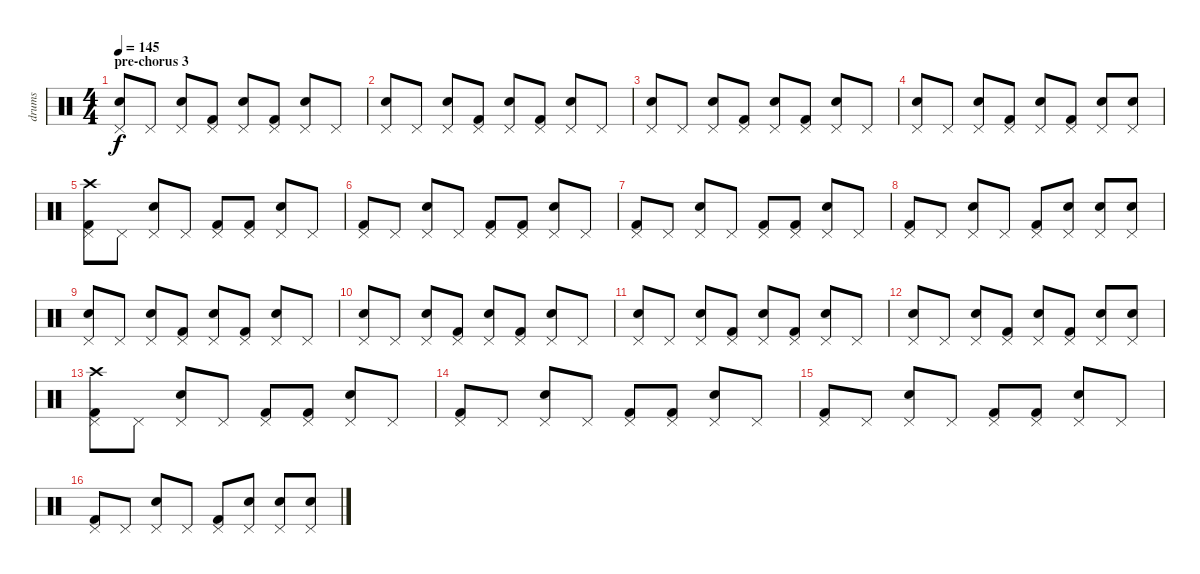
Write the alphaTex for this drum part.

\track ("drums" "drums") {instrument percussion}
\staff {score}
\articulation defaults
\ts (4 4)
\section ("" "pre-chorus 3")
\tempo 145
\clef neutral
\ks c
("Snare (hit) 2" "Pedal Hi-Hat (hit)").8{dy f} "Pedal Hi-Hat (hit)".8 ("Snare (hit) 2" "Pedal Hi-Hat (hit)").8 ("Kick (hit) 2" "Pedal Hi-Hat (hit)").8 ("Snare (hit) 2" "Pedal Hi-Hat (hit)").8 ("Kick (hit) 2" "Pedal Hi-Hat (hit)").8 ("Snare (hit) 2" "Pedal Hi-Hat (hit)").8 "Pedal Hi-Hat (hit)".8 |
("Snare (hit) 2" "Pedal Hi-Hat (hit)").8 "Pedal Hi-Hat (hit)".8 ("Snare (hit) 2" "Pedal Hi-Hat (hit)").8 ("Kick (hit) 2" "Pedal Hi-Hat (hit)").8 ("Snare (hit) 2" "Pedal Hi-Hat (hit)").8 ("Kick (hit) 2" "Pedal Hi-Hat (hit)").8 ("Snare (hit) 2" "Pedal Hi-Hat (hit)").8 "Pedal Hi-Hat (hit)".8 |
("Snare (hit) 2" "Pedal Hi-Hat (hit)").8 "Pedal Hi-Hat (hit)".8 ("Snare (hit) 2" "Pedal Hi-Hat (hit)").8 ("Kick (hit) 2" "Pedal Hi-Hat (hit)").8 ("Snare (hit) 2" "Pedal Hi-Hat (hit)").8 ("Kick (hit) 2" "Pedal Hi-Hat (hit)").8 ("Snare (hit) 2" "Pedal Hi-Hat (hit)").8 "Pedal Hi-Hat (hit)".8 |
("Snare (hit) 2" "Pedal Hi-Hat (hit)").8 "Pedal Hi-Hat (hit)".8 ("Snare (hit) 2" "Pedal Hi-Hat (hit)").8 ("Kick (hit) 2" "Pedal Hi-Hat (hit)").8 ("Snare (hit) 2" "Pedal Hi-Hat (hit)").8 ("Kick (hit) 2" "Pedal Hi-Hat (hit)").8 ("Snare (hit) 2" "Pedal Hi-Hat (hit)").8 ("Snare (hit) 2" "Pedal Hi-Hat (hit)").8 |
("Kick (hit) 2" "Crash high (hit)" "Pedal Hi-Hat (hit)").8 "Pedal Hi-Hat (hit)".8 ("Snare (hit) 2" "Pedal Hi-Hat (hit)").8 "Pedal Hi-Hat (hit)".8 ("Kick (hit) 2" "Pedal Hi-Hat (hit)").8 ("Kick (hit) 2" "Pedal Hi-Hat (hit)").8 ("Snare (hit) 2" "Pedal Hi-Hat (hit)").8 "Pedal Hi-Hat (hit)".8 |
("Kick (hit) 2" "Pedal Hi-Hat (hit)").8 "Pedal Hi-Hat (hit)".8 ("Snare (hit) 2" "Pedal Hi-Hat (hit)").8 "Pedal Hi-Hat (hit)".8 ("Kick (hit) 2" "Pedal Hi-Hat (hit)").8 ("Kick (hit) 2" "Pedal Hi-Hat (hit)").8 ("Snare (hit) 2" "Pedal Hi-Hat (hit)").8 "Pedal Hi-Hat (hit)".8 |
("Kick (hit) 2" "Pedal Hi-Hat (hit)").8 "Pedal Hi-Hat (hit)".8 ("Snare (hit) 2" "Pedal Hi-Hat (hit)").8 "Pedal Hi-Hat (hit)".8 ("Kick (hit) 2" "Pedal Hi-Hat (hit)").8 ("Kick (hit) 2" "Pedal Hi-Hat (hit)").8 ("Snare (hit) 2" "Pedal Hi-Hat (hit)").8 "Pedal Hi-Hat (hit)".8 |
("Kick (hit) 2" "Pedal Hi-Hat (hit)").8 "Pedal Hi-Hat (hit)".8 ("Snare (hit) 2" "Pedal Hi-Hat (hit)").8 "Pedal Hi-Hat (hit)".8 ("Kick (hit) 2" "Pedal Hi-Hat (hit)").8 ("Snare (hit) 2" "Pedal Hi-Hat (hit)").8 ("Snare (hit) 2" "Pedal Hi-Hat (hit)").8 ("Snare (hit) 2" "Pedal Hi-Hat (hit)").8 |
("Snare (hit) 2" "Pedal Hi-Hat (hit)").8 "Pedal Hi-Hat (hit)".8 ("Snare (hit) 2" "Pedal Hi-Hat (hit)").8 ("Kick (hit) 2" "Pedal Hi-Hat (hit)").8 ("Snare (hit) 2" "Pedal Hi-Hat (hit)").8 ("Kick (hit) 2" "Pedal Hi-Hat (hit)").8 ("Snare (hit) 2" "Pedal Hi-Hat (hit)").8 "Pedal Hi-Hat (hit)".8 |
("Snare (hit) 2" "Pedal Hi-Hat (hit)").8 "Pedal Hi-Hat (hit)".8 ("Snare (hit) 2" "Pedal Hi-Hat (hit)").8 ("Kick (hit) 2" "Pedal Hi-Hat (hit)").8 ("Snare (hit) 2" "Pedal Hi-Hat (hit)").8 ("Kick (hit) 2" "Pedal Hi-Hat (hit)").8 ("Snare (hit) 2" "Pedal Hi-Hat (hit)").8 "Pedal Hi-Hat (hit)".8 |
("Snare (hit) 2" "Pedal Hi-Hat (hit)").8 "Pedal Hi-Hat (hit)".8 ("Snare (hit) 2" "Pedal Hi-Hat (hit)").8 ("Kick (hit) 2" "Pedal Hi-Hat (hit)").8 ("Snare (hit) 2" "Pedal Hi-Hat (hit)").8 ("Kick (hit) 2" "Pedal Hi-Hat (hit)").8 ("Snare (hit) 2" "Pedal Hi-Hat (hit)").8 "Pedal Hi-Hat (hit)".8 |
("Snare (hit) 2" "Pedal Hi-Hat (hit)").8 "Pedal Hi-Hat (hit)".8 ("Snare (hit) 2" "Pedal Hi-Hat (hit)").8 ("Kick (hit) 2" "Pedal Hi-Hat (hit)").8 ("Snare (hit) 2" "Pedal Hi-Hat (hit)").8 ("Kick (hit) 2" "Pedal Hi-Hat (hit)").8 ("Snare (hit) 2" "Pedal Hi-Hat (hit)").8 ("Snare (hit) 2" "Pedal Hi-Hat (hit)").8 |
("Kick (hit) 2" "Crash high (hit)" "Pedal Hi-Hat (hit)").8 "Pedal Hi-Hat (hit)".8 ("Snare (hit) 2" "Pedal Hi-Hat (hit)").8 "Pedal Hi-Hat (hit)".8 ("Kick (hit) 2" "Pedal Hi-Hat (hit)").8 ("Kick (hit) 2" "Pedal Hi-Hat (hit)").8 ("Snare (hit) 2" "Pedal Hi-Hat (hit)").8 "Pedal Hi-Hat (hit)".8 |
("Kick (hit) 2" "Pedal Hi-Hat (hit)").8 "Pedal Hi-Hat (hit)".8 ("Snare (hit) 2" "Pedal Hi-Hat (hit)").8 "Pedal Hi-Hat (hit)".8 ("Kick (hit) 2" "Pedal Hi-Hat (hit)").8 ("Kick (hit) 2" "Pedal Hi-Hat (hit)").8 ("Snare (hit) 2" "Pedal Hi-Hat (hit)").8 "Pedal Hi-Hat (hit)".8 |
("Kick (hit) 2" "Pedal Hi-Hat (hit)").8 "Pedal Hi-Hat (hit)".8 ("Snare (hit) 2" "Pedal Hi-Hat (hit)").8 "Pedal Hi-Hat (hit)".8 ("Kick (hit) 2" "Pedal Hi-Hat (hit)").8 ("Kick (hit) 2" "Pedal Hi-Hat (hit)").8 ("Snare (hit) 2" "Pedal Hi-Hat (hit)").8 "Pedal Hi-Hat (hit)".8 |
("Kick (hit) 2" "Pedal Hi-Hat (hit)").8 "Pedal Hi-Hat (hit)".8 ("Snare (hit) 2" "Pedal Hi-Hat (hit)").8 "Pedal Hi-Hat (hit)".8 ("Kick (hit) 2" "Pedal Hi-Hat (hit)").8 ("Snare (hit) 2" "Pedal Hi-Hat (hit)").8 ("Snare (hit) 2" "Pedal Hi-Hat (hit)").8 ("Snare (hit) 2" "Pedal Hi-Hat (hit)").8
